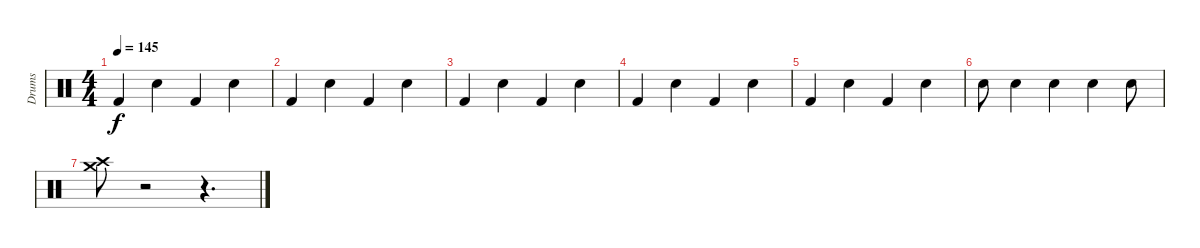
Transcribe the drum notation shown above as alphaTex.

\track ("Drums" "Drums") {instrument percussion}
\staff {score}
\articulation defaults
\ts (4 4)
\tempo 145
\clef neutral
\ks c "Kick (hit) 2".4{dy f} "Snare (hit) 2".4 "Kick (hit) 2".4 "Snare (hit) 2".4
|
"Kick (hit) 2".4 "Snare (hit) 2".4 "Kick (hit) 2".4 "Snare (hit) 2".4 |
"Kick (hit) 2".4 "Snare (hit) 2".4 "Kick (hit) 2".4 "Snare (hit) 2".4 |
"Kick (hit) 2".4 "Snare (hit) 2".4 "Kick (hit) 2".4 "Snare (hit) 2".4 |
"Kick (hit) 2".4 "Snare (hit) 2".4 "Kick (hit) 2".4 "Snare (hit) 2".4 |
"Electric Snare (hit)".8 "Electric Snare (hit)".4 "Electric Snare (hit)".4 "Electric Snare (hit)".4 "Electric Snare (hit)".8 |
("Crash medium (hit)" "Crash high (hit)").8 r.2 r.4{d}
